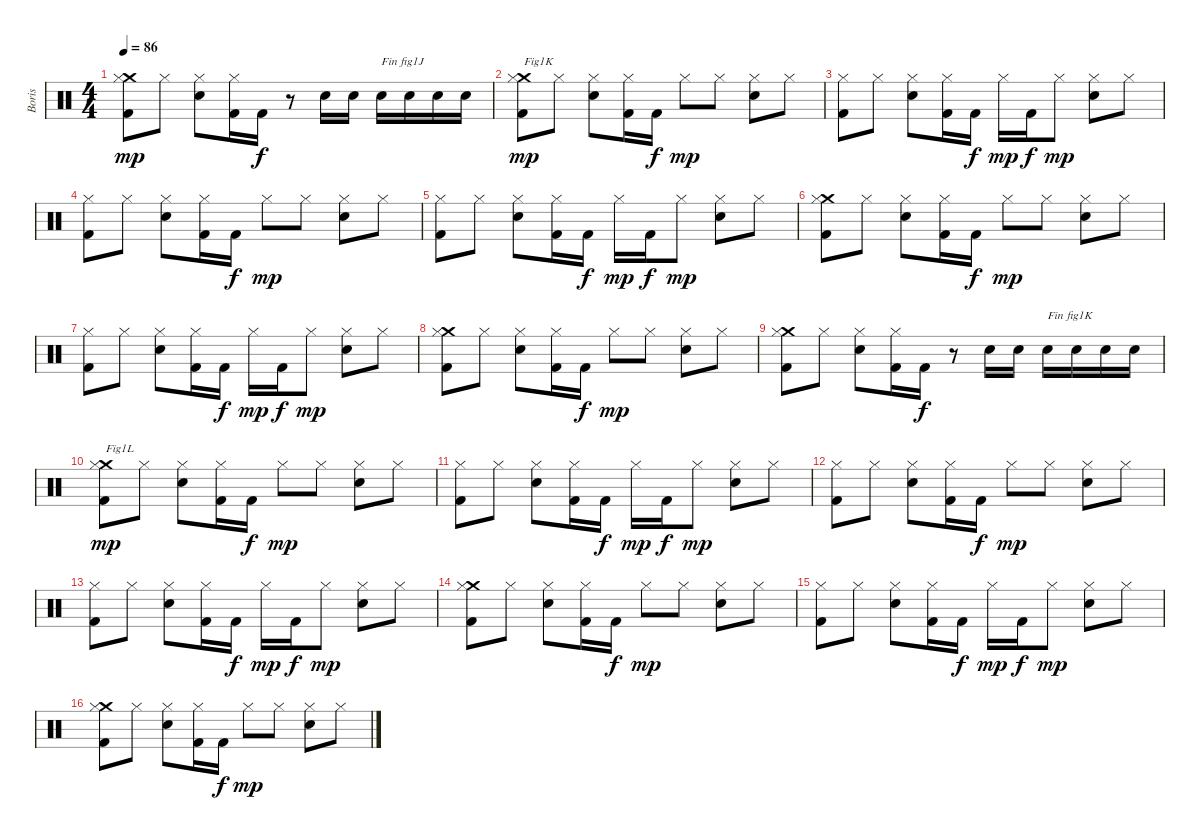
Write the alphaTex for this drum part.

\track ("Boris" "Boris") {instrument percussion}
\staff {score}
\articulation defaults
\ts (4 4)
\tempo 86
\clef neutral
\ks c
("Kick (hit) 2" "Crash medium (hit)" "Hi-Hat (closed)").8{dy mp} "Hi-Hat (closed)".8 ("Electric Snare (hit)" "Hi-Hat (closed)").8 ("Kick (hit) 2" "Hi-Hat (closed)").16 "Kick (hit) 2".16{dy f} r.8 "Electric Snare (hit)".16 "Electric Snare (hit)".16 "Electric Snare (hit)".16{txt "Fin fig1J"} "Electric Snare (hit)".16 "Electric Snare (hit)".16 "Electric Snare (hit)".16 |
("Kick (hit) 2" "Crash medium (hit)" "Hi-Hat (closed)").8{txt "Fig1K" dy mp} "Hi-Hat (closed)".8 ("Electric Snare (hit)" "Hi-Hat (closed)").8 ("Kick (hit) 2" "Hi-Hat (closed)").16 "Kick (hit) 2".16{dy f} "Hi-Hat (closed)".8{dy mp} "Hi-Hat (closed)".8 ("Electric Snare (hit)" "Hi-Hat (closed)").8 "Hi-Hat (closed)".8 |
("Kick (hit) 2" "Hi-Hat (closed)").8 "Hi-Hat (closed)".8 ("Electric Snare (hit)" "Hi-Hat (closed)").8 ("Kick (hit) 2" "Hi-Hat (closed)").16 "Kick (hit) 2".16{dy f} "Hi-Hat (closed)".16{dy mp} "Kick (hit) 2".16{dy f} "Hi-Hat (closed)".8{dy mp} ("Electric Snare (hit)" "Hi-Hat (closed)").8 "Hi-Hat (closed)".8 |
("Kick (hit) 2" "Hi-Hat (closed)").8 "Hi-Hat (closed)".8 ("Electric Snare (hit)" "Hi-Hat (closed)").8 ("Kick (hit) 2" "Hi-Hat (closed)").16 "Kick (hit) 2".16{dy f} "Hi-Hat (closed)".8{dy mp} "Hi-Hat (closed)".8 ("Electric Snare (hit)" "Hi-Hat (closed)").8 "Hi-Hat (closed)".8 |
("Kick (hit) 2" "Hi-Hat (closed)").8 "Hi-Hat (closed)".8 ("Electric Snare (hit)" "Hi-Hat (closed)").8 ("Kick (hit) 2" "Hi-Hat (closed)").16 "Kick (hit) 2".16{dy f} "Hi-Hat (closed)".16{dy mp} "Kick (hit) 2".16{dy f} "Hi-Hat (closed)".8{dy mp} ("Electric Snare (hit)" "Hi-Hat (closed)").8 "Hi-Hat (closed)".8 |
("Kick (hit) 2" "Crash medium (hit)" "Hi-Hat (closed)").8 "Hi-Hat (closed)".8 ("Electric Snare (hit)" "Hi-Hat (closed)").8 ("Kick (hit) 2" "Hi-Hat (closed)").16 "Kick (hit) 2".16{dy f} "Hi-Hat (closed)".8{dy mp} "Hi-Hat (closed)".8 ("Electric Snare (hit)" "Hi-Hat (closed)").8 "Hi-Hat (closed)".8 |
("Kick (hit) 2" "Hi-Hat (closed)").8 "Hi-Hat (closed)".8 ("Electric Snare (hit)" "Hi-Hat (closed)").8 ("Kick (hit) 2" "Hi-Hat (closed)").16 "Kick (hit) 2".16{dy f} "Hi-Hat (closed)".16{dy mp} "Kick (hit) 2".16{dy f} "Hi-Hat (closed)".8{dy mp} ("Electric Snare (hit)" "Hi-Hat (closed)").8 "Hi-Hat (closed)".8 |
("Kick (hit) 2" "Crash medium (hit)" "Hi-Hat (closed)").8 "Hi-Hat (closed)".8 ("Electric Snare (hit)" "Hi-Hat (closed)").8 ("Kick (hit) 2" "Hi-Hat (closed)").16 "Kick (hit) 2".16{dy f} "Hi-Hat (closed)".8{dy mp} "Hi-Hat (closed)".8 ("Electric Snare (hit)" "Hi-Hat (closed)").8 "Hi-Hat (closed)".8 |
("Kick (hit) 2" "Crash medium (hit)" "Hi-Hat (closed)").8 "Hi-Hat (closed)".8 ("Electric Snare (hit)" "Hi-Hat (closed)").8 ("Kick (hit) 2" "Hi-Hat (closed)").16 "Kick (hit) 2".16{dy f} r.8 "Electric Snare (hit)".16 "Electric Snare (hit)".16 "Electric Snare (hit)".16{txt "Fin fig1K"} "Electric Snare (hit)".16 "Electric Snare (hit)".16 "Electric Snare (hit)".16 |
("Kick (hit) 2" "Crash medium (hit)" "Hi-Hat (closed)").8{txt "Fig1L" dy mp} "Hi-Hat (closed)".8 ("Electric Snare (hit)" "Hi-Hat (closed)").8 ("Kick (hit) 2" "Hi-Hat (closed)").16 "Kick (hit) 2".16{dy f} "Hi-Hat (closed)".8{dy mp} "Hi-Hat (closed)".8 ("Electric Snare (hit)" "Hi-Hat (closed)").8 "Hi-Hat (closed)".8 |
("Kick (hit) 2" "Hi-Hat (closed)").8 "Hi-Hat (closed)".8 ("Electric Snare (hit)" "Hi-Hat (closed)").8 ("Kick (hit) 2" "Hi-Hat (closed)").16 "Kick (hit) 2".16{dy f} "Hi-Hat (closed)".16{dy mp} "Kick (hit) 2".16{dy f} "Hi-Hat (closed)".8{dy mp} ("Electric Snare (hit)" "Hi-Hat (closed)").8 "Hi-Hat (closed)".8 |
("Kick (hit) 2" "Hi-Hat (closed)").8 "Hi-Hat (closed)".8 ("Electric Snare (hit)" "Hi-Hat (closed)").8 ("Kick (hit) 2" "Hi-Hat (closed)").16 "Kick (hit) 2".16{dy f} "Hi-Hat (closed)".8{dy mp} "Hi-Hat (closed)".8 ("Electric Snare (hit)" "Hi-Hat (closed)").8 "Hi-Hat (closed)".8 |
("Kick (hit) 2" "Hi-Hat (closed)").8 "Hi-Hat (closed)".8 ("Electric Snare (hit)" "Hi-Hat (closed)").8 ("Kick (hit) 2" "Hi-Hat (closed)").16 "Kick (hit) 2".16{dy f} "Hi-Hat (closed)".16{dy mp} "Kick (hit) 2".16{dy f} "Hi-Hat (closed)".8{dy mp} ("Electric Snare (hit)" "Hi-Hat (closed)").8 "Hi-Hat (closed)".8 |
("Kick (hit) 2" "Crash medium (hit)" "Hi-Hat (closed)").8 "Hi-Hat (closed)".8 ("Electric Snare (hit)" "Hi-Hat (closed)").8 ("Kick (hit) 2" "Hi-Hat (closed)").16 "Kick (hit) 2".16{dy f} "Hi-Hat (closed)".8{dy mp} "Hi-Hat (closed)".8 ("Electric Snare (hit)" "Hi-Hat (closed)").8 "Hi-Hat (closed)".8 |
("Kick (hit) 2" "Hi-Hat (closed)").8 "Hi-Hat (closed)".8 ("Electric Snare (hit)" "Hi-Hat (closed)").8 ("Kick (hit) 2" "Hi-Hat (closed)").16 "Kick (hit) 2".16{dy f} "Hi-Hat (closed)".16{dy mp} "Kick (hit) 2".16{dy f} "Hi-Hat (closed)".8{dy mp} ("Electric Snare (hit)" "Hi-Hat (closed)").8 "Hi-Hat (closed)".8 |
("Kick (hit) 2" "Crash medium (hit)" "Hi-Hat (closed)").8 "Hi-Hat (closed)".8 ("Electric Snare (hit)" "Hi-Hat (closed)").8 ("Kick (hit) 2" "Hi-Hat (closed)").16 "Kick (hit) 2".16{dy f} "Hi-Hat (closed)".8{dy mp} "Hi-Hat (closed)".8 ("Electric Snare (hit)" "Hi-Hat (closed)").8 "Hi-Hat (closed)".8
